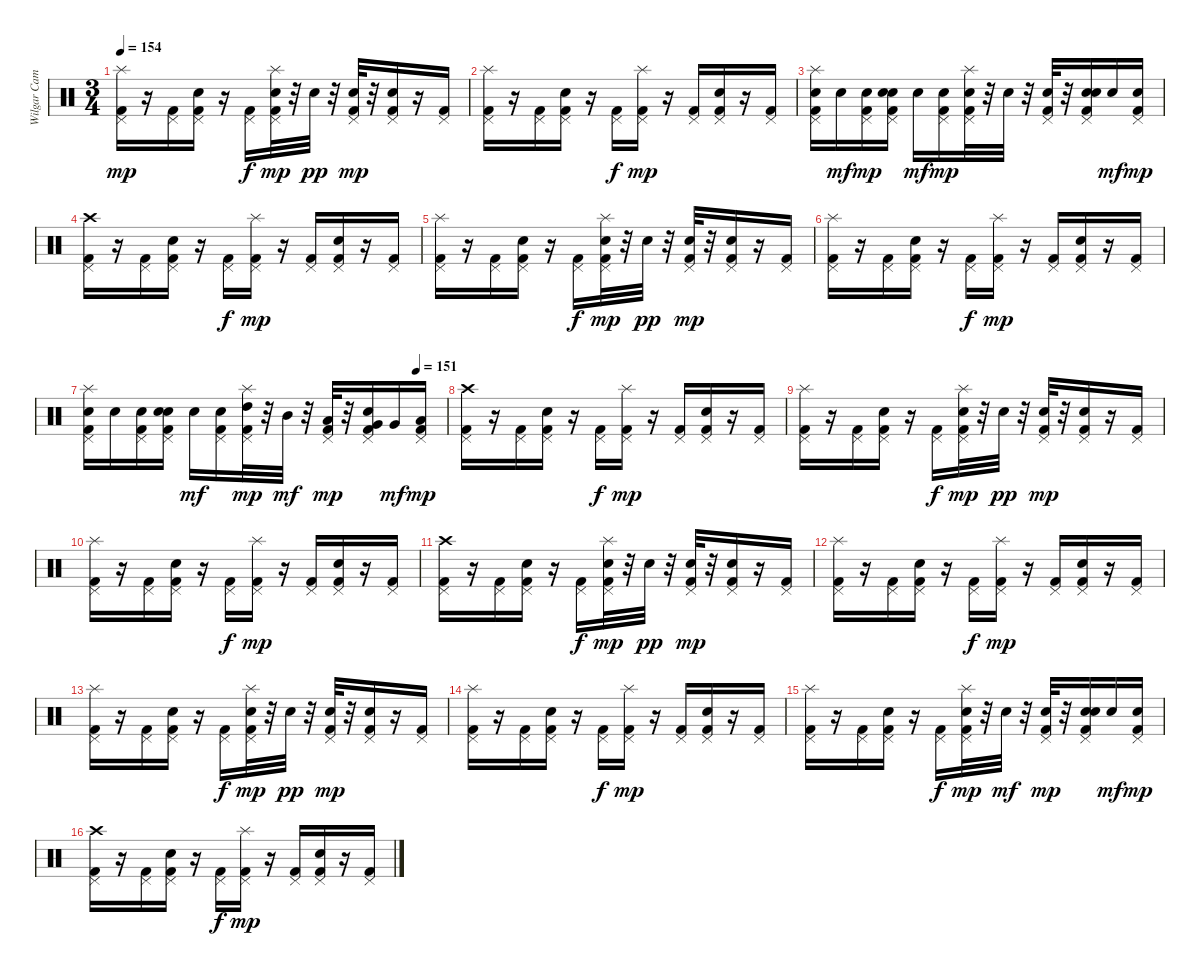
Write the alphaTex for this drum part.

\track ("Wilgar Campbell" "Wilgar Cam") {instrument percussion}
\staff {score}
\articulation defaults
\ts (3 4)
\tempo 154
\clef neutral
\ks c
("Splash (hit)" "Pedal Hi-Hat (hit)" "Kick (hit) 2").16{dy mp} r.16 ("Pedal Hi-Hat (hit)" "Kick (hit) 2").16 ("Snare (hit) 2" "Pedal Hi-Hat (hit)" "Kick (hit) 2").16 r.16 ("Pedal Hi-Hat (hit)" "Kick (hit) 2").16{dy f} ("Splash (hit)" "Pedal Hi-Hat (hit)" "Electric Snare (hit)" "Kick (hit) 2").32{dy mp} r.32 "Electric Snare (hit)".32{dy pp} r.32 ("Pedal Hi-Hat (hit)" "Electric Snare (hit)" "Kick (hit) 2").32{dy mp} r.32 ("Snare (hit) 2" "Pedal Hi-Hat (hit)" "Kick (hit) 2").16 r.16 ("Pedal Hi-Hat (hit)" "Kick (hit) 2").16 |
("Splash (hit)" "Pedal Hi-Hat (hit)" "Kick (hit) 2").16 r.16 ("Pedal Hi-Hat (hit)" "Kick (hit) 2").16 ("Snare (hit) 2" "Pedal Hi-Hat (hit)" "Kick (hit) 2").16 r.16 ("Pedal Hi-Hat (hit)" "Kick (hit) 2").16{dy f} ("Splash (hit)" "Pedal Hi-Hat (hit)" "Kick (hit) 2").16{dy mp} r.16 ("Pedal Hi-Hat (hit)" "Kick (hit) 2").16 ("Snare (hit) 2" "Pedal Hi-Hat (hit)" "Kick (hit) 2").16 r.16 ("Pedal Hi-Hat (hit)" "Kick (hit) 2").16 |
("Splash (hit)" "Pedal Hi-Hat (hit)" "Electric Snare (hit)" "Kick (hit) 2").16 "Snare (hit) 2".16{dy mf} ("Pedal Hi-Hat (hit)" "Snare (hit) 2" "Kick (hit) 2").16{dy mp} ("Snare (hit) 2" "Pedal Hi-Hat (hit)" "Snare (hit) 2" "Kick (hit) 2").16 "Snare (hit) 2".16{dy mf} ("Pedal Hi-Hat (hit)" "Snare (hit) 2" "Kick (hit) 2").16{dy mp} ("Splash (hit)" "Pedal Hi-Hat (hit)" "Snare (hit) 2" "Kick (hit) 2").32 r.32 "Snare (hit) 2".32 r.32 ("Pedal Hi-Hat (hit)" "Snare (hit) 2" "Kick (hit) 2").32 r.32 ("Snare (hit) 2" "Pedal Hi-Hat (hit)" "Snare (hit) 2" "Kick (hit) 2").16 "Snare (hit) 2".16{dy mf} ("Pedal Hi-Hat (hit)" "Snare (hit) 2" "Kick (hit) 2").16{dy mp} |
("Crash high (hit)" "Pedal Hi-Hat (hit)" "Kick (hit) 2").16 r.16 ("Pedal Hi-Hat (hit)" "Kick (hit) 2").16 ("Snare (hit) 2" "Pedal Hi-Hat (hit)" "Kick (hit) 2").16 r.16 ("Pedal Hi-Hat (hit)" "Kick (hit) 2").16{dy f} ("Splash (hit)" "Pedal Hi-Hat (hit)" "Kick (hit) 2").16{dy mp} r.16 ("Pedal Hi-Hat (hit)" "Kick (hit) 2").16 ("Snare (hit) 2" "Pedal Hi-Hat (hit)" "Kick (hit) 2").16 r.16 ("Pedal Hi-Hat (hit)" "Kick (hit) 2").16 |
("Splash (hit)" "Pedal Hi-Hat (hit)" "Kick (hit) 2").16 r.16 ("Pedal Hi-Hat (hit)" "Kick (hit) 2").16 ("Snare (hit) 2" "Pedal Hi-Hat (hit)" "Kick (hit) 2").16 r.16 ("Pedal Hi-Hat (hit)" "Kick (hit) 2").16{dy f} ("Splash (hit)" "Pedal Hi-Hat (hit)" "Electric Snare (hit)" "Kick (hit) 2").32{dy mp} r.32 "Electric Snare (hit)".32{dy pp} r.32 ("Pedal Hi-Hat (hit)" "Electric Snare (hit)" "Kick (hit) 2").32{dy mp} r.32 ("Snare (hit) 2" "Pedal Hi-Hat (hit)" "Kick (hit) 2").16 r.16 ("Pedal Hi-Hat (hit)" "Kick (hit) 2").16 |
("Splash (hit)" "Pedal Hi-Hat (hit)" "Kick (hit) 2").16 r.16 ("Pedal Hi-Hat (hit)" "Kick (hit) 2").16 ("Snare (hit) 2" "Pedal Hi-Hat (hit)" "Kick (hit) 2").16 r.16 ("Pedal Hi-Hat (hit)" "Kick (hit) 2").16{dy f} ("Splash (hit)" "Pedal Hi-Hat (hit)" "Kick (hit) 2").16{dy mp} r.16 ("Pedal Hi-Hat (hit)" "Kick (hit) 2").16 ("Snare (hit) 2" "Pedal Hi-Hat (hit)" "Kick (hit) 2").16 r.16 ("Pedal Hi-Hat (hit)" "Kick (hit) 2").16 |
\tempo (151 0.9166666666666666)
("Splash (hit)" "Pedal Hi-Hat (hit)" "Electric Snare (hit)" "Kick (hit) 2").16 "Electric Snare (hit)".16 ("Pedal Hi-Hat (hit)" "Electric Snare (hit)" "Kick (hit) 2").16 ("Snare (hit) 2" "Pedal Hi-Hat (hit)" "Electric Snare (hit)" "Kick (hit) 2").16 "Electric Snare (hit)".16{dy mf} ("Pedal Hi-Hat (hit)" "Electric Snare (hit)" "Kick (hit) 2").16 ("Splash (hit)" "Pedal Hi-Hat (hit)" "High Tom (hit)" "Kick (hit) 2").32{dy mp} r.32 "Mid Tom (hit)".32{dy mf} r.32 ("Pedal Hi-Hat (hit)" "Low Tom (hit)" "Kick (hit) 2").32{dy mp} r.32 ("Snare (hit) 2" "Pedal Hi-Hat (hit)" "Very Low Tom (hit)" "Kick (hit) 2").16 "Very Low Tom (hit)".16{dy mf} ("Pedal Hi-Hat (hit)" "Low Floor Tom (hit)" "Kick (hit) 2").16{dy mp} |
("Crash high (hit)" "Pedal Hi-Hat (hit)" "Kick (hit) 2").16 r.16 ("Pedal Hi-Hat (hit)" "Kick (hit) 2").16 ("Snare (hit) 2" "Pedal Hi-Hat (hit)" "Kick (hit) 2").16 r.16 ("Pedal Hi-Hat (hit)" "Kick (hit) 2").16{dy f} ("Splash (hit)" "Pedal Hi-Hat (hit)" "Kick (hit) 2").16{dy mp} r.16 ("Pedal Hi-Hat (hit)" "Kick (hit) 2").16 ("Snare (hit) 2" "Pedal Hi-Hat (hit)" "Kick (hit) 2").16 r.16 ("Pedal Hi-Hat (hit)" "Kick (hit) 2").16 |
("Splash (hit)" "Pedal Hi-Hat (hit)" "Kick (hit) 2").16 r.16 ("Pedal Hi-Hat (hit)" "Kick (hit) 2").16 ("Snare (hit) 2" "Pedal Hi-Hat (hit)" "Kick (hit) 2").16 r.16 ("Pedal Hi-Hat (hit)" "Kick (hit) 2").16{dy f} ("Splash (hit)" "Pedal Hi-Hat (hit)" "Electric Snare (hit)" "Kick (hit) 2").32{dy mp} r.32 "Electric Snare (hit)".32{dy pp} r.32 ("Pedal Hi-Hat (hit)" "Electric Snare (hit)" "Kick (hit) 2").32{dy mp} r.32 ("Snare (hit) 2" "Pedal Hi-Hat (hit)" "Kick (hit) 2").16 r.16 ("Pedal Hi-Hat (hit)" "Kick (hit) 2").16 |
("Splash (hit)" "Pedal Hi-Hat (hit)" "Kick (hit) 2").16 r.16 ("Pedal Hi-Hat (hit)" "Kick (hit) 2").16 ("Snare (hit) 2" "Pedal Hi-Hat (hit)" "Kick (hit) 2").16 r.16 ("Pedal Hi-Hat (hit)" "Kick (hit) 2").16{dy f} ("Splash (hit)" "Pedal Hi-Hat (hit)" "Kick (hit) 2").16{dy mp} r.16 ("Pedal Hi-Hat (hit)" "Kick (hit) 2").16 ("Snare (hit) 2" "Pedal Hi-Hat (hit)" "Kick (hit) 2").16 r.16 ("Pedal Hi-Hat (hit)" "Kick (hit) 2").16 |
("Crash high (hit)" "Pedal Hi-Hat (hit)" "Kick (hit) 2").16 r.16 ("Pedal Hi-Hat (hit)" "Kick (hit) 2").16 ("Snare (hit) 2" "Pedal Hi-Hat (hit)" "Kick (hit) 2").16 r.16 ("Pedal Hi-Hat (hit)" "Kick (hit) 2").16{dy f} ("Splash (hit)" "Pedal Hi-Hat (hit)" "Electric Snare (hit)" "Kick (hit) 2").32{dy mp} r.32 "Electric Snare (hit)".32{dy pp} r.32 ("Pedal Hi-Hat (hit)" "Electric Snare (hit)" "Kick (hit) 2").32{dy mp} r.32 ("Snare (hit) 2" "Pedal Hi-Hat (hit)" "Kick (hit) 2").16 r.16 ("Pedal Hi-Hat (hit)" "Kick (hit) 2").16 |
("Splash (hit)" "Pedal Hi-Hat (hit)" "Kick (hit) 2").16 r.16 ("Pedal Hi-Hat (hit)" "Kick (hit) 2").16 ("Snare (hit) 2" "Pedal Hi-Hat (hit)" "Kick (hit) 2").16 r.16 ("Pedal Hi-Hat (hit)" "Kick (hit) 2").16{dy f} ("Splash (hit)" "Pedal Hi-Hat (hit)" "Kick (hit) 2").16{dy mp} r.16 ("Pedal Hi-Hat (hit)" "Kick (hit) 2").16 ("Snare (hit) 2" "Pedal Hi-Hat (hit)" "Kick (hit) 2").16 r.16 ("Pedal Hi-Hat (hit)" "Kick (hit) 2").16 |
("Splash (hit)" "Pedal Hi-Hat (hit)" "Kick (hit) 2").16 r.16 ("Pedal Hi-Hat (hit)" "Kick (hit) 2").16 ("Snare (hit) 2" "Pedal Hi-Hat (hit)" "Kick (hit) 2").16 r.16 ("Pedal Hi-Hat (hit)" "Kick (hit) 2").16{dy f} ("Splash (hit)" "Pedal Hi-Hat (hit)" "Electric Snare (hit)" "Kick (hit) 2").32{dy mp} r.32 "Electric Snare (hit)".32{dy pp} r.32 ("Pedal Hi-Hat (hit)" "Electric Snare (hit)" "Kick (hit) 2").32{dy mp} r.32 ("Snare (hit) 2" "Pedal Hi-Hat (hit)" "Kick (hit) 2").16 r.16 ("Pedal Hi-Hat (hit)" "Kick (hit) 2").16 |
("Splash (hit)" "Pedal Hi-Hat (hit)" "Kick (hit) 2").16 r.16 ("Pedal Hi-Hat (hit)" "Kick (hit) 2").16 ("Snare (hit) 2" "Pedal Hi-Hat (hit)" "Kick (hit) 2").16 r.16 ("Pedal Hi-Hat (hit)" "Kick (hit) 2").16{dy f} ("Splash (hit)" "Pedal Hi-Hat (hit)" "Kick (hit) 2").16{dy mp} r.16 ("Pedal Hi-Hat (hit)" "Kick (hit) 2").16 ("Snare (hit) 2" "Pedal Hi-Hat (hit)" "Kick (hit) 2").16 r.16 ("Pedal Hi-Hat (hit)" "Kick (hit) 2").16 |
("Splash (hit)" "Pedal Hi-Hat (hit)" "Kick (hit) 2").16 r.16 ("Pedal Hi-Hat (hit)" "Kick (hit) 2").16 ("Snare (hit) 2" "Pedal Hi-Hat (hit)" "Kick (hit) 2").16 r.16 ("Pedal Hi-Hat (hit)" "Kick (hit) 2").16{dy f} ("Splash (hit)" "Pedal Hi-Hat (hit)" "Electric Snare (hit)" "Kick (hit) 2").32{dy mp} r.32 "Electric Snare (hit)".32{dy mf} r.32 ("Pedal Hi-Hat (hit)" "Electric Snare (hit)" "Kick (hit) 2").32{dy mp} r.32 ("Snare (hit) 2" "Pedal Hi-Hat (hit)" "Electric Snare (hit)" "Kick (hit) 2").16 "Electric Snare (hit)".16{dy mf} ("Pedal Hi-Hat (hit)" "Electric Snare (hit)" "Kick (hit) 2").16{dy mp} |
("Crash high (hit)" "Pedal Hi-Hat (hit)" "Kick (hit) 2").16 r.16 ("Pedal Hi-Hat (hit)" "Kick (hit) 2").16 ("Snare (hit) 2" "Pedal Hi-Hat (hit)" "Kick (hit) 2").16 r.16 ("Pedal Hi-Hat (hit)" "Kick (hit) 2").16{dy f} ("Splash (hit)" "Pedal Hi-Hat (hit)" "Kick (hit) 2").16{dy mp} r.16 ("Pedal Hi-Hat (hit)" "Kick (hit) 2").16 ("Snare (hit) 2" "Pedal Hi-Hat (hit)" "Kick (hit) 2").16 r.16 ("Pedal Hi-Hat (hit)" "Kick (hit) 2").16
